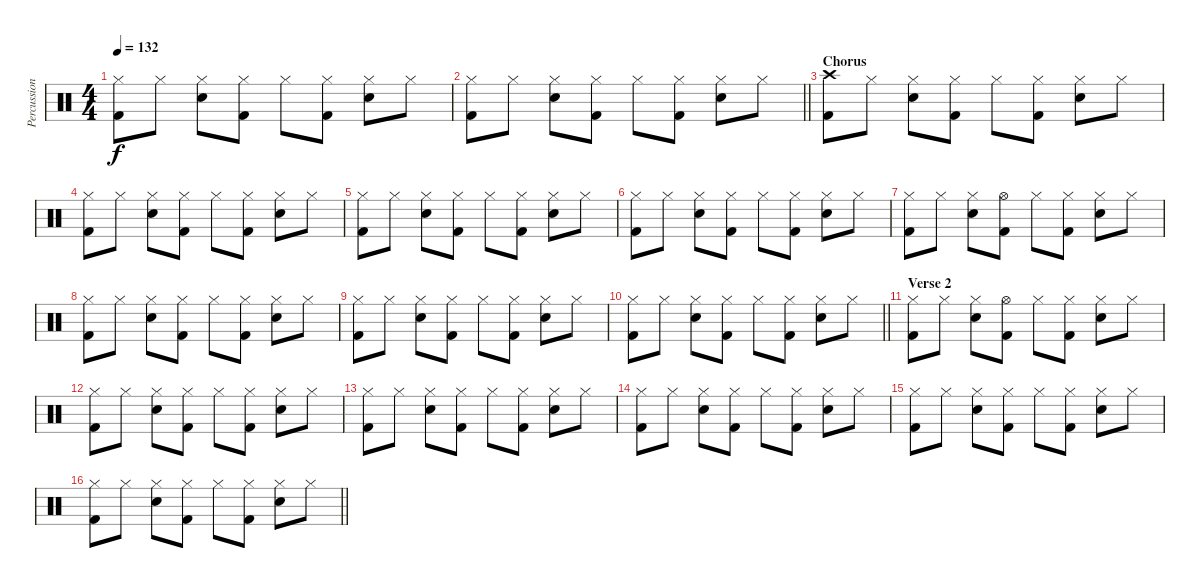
\track ("Percussions" "Percussion") {instrument percussion}
\staff {score}
\articulation defaults
\ts (4 4)
\tempo 132
\clef neutral
\ks c
("Hi-Hat (closed)" "Kick (hit) 2").8{dy f} "Hi-Hat (closed)".8 ("Hi-Hat (closed)" "Electric Snare (hit)").8 ("Hi-Hat (closed)" "Kick (hit) 2").8 "Hi-Hat (closed)".8 ("Hi-Hat (closed)" "Kick (hit) 2").8 ("Hi-Hat (closed)" "Electric Snare (hit)").8 "Hi-Hat (closed)".8 |
\barLineRight lightlight
("Hi-Hat (closed)" "Kick (hit) 2").8 "Hi-Hat (closed)".8 ("Hi-Hat (closed)" "Electric Snare (hit)").8 ("Hi-Hat (closed)" "Kick (hit) 2").8 "Hi-Hat (closed)".8 ("Hi-Hat (closed)" "Kick (hit) 2").8 ("Hi-Hat (closed)" "Electric Snare (hit)").8 "Hi-Hat (closed)".8 |
\section ("" "Chorus")
("Crash high (hit)" "Kick (hit) 2").8 "Hi-Hat (closed)".8 ("Hi-Hat (closed)" "Electric Snare (hit)").8 ("Hi-Hat (closed)" "Kick (hit) 2").8 "Hi-Hat (closed)".8 ("Hi-Hat (closed)" "Kick (hit) 2").8 ("Hi-Hat (closed)" "Electric Snare (hit)").8 "Hi-Hat (closed)".8 |
("Hi-Hat (closed)" "Kick (hit) 2").8 "Hi-Hat (closed)".8 ("Hi-Hat (closed)" "Electric Snare (hit)").8 ("Hi-Hat (closed)" "Kick (hit) 2").8 "Hi-Hat (closed)".8 ("Hi-Hat (closed)" "Kick (hit) 2").8 ("Hi-Hat (closed)" "Electric Snare (hit)").8 "Hi-Hat (closed)".8 |
("Hi-Hat (closed)" "Kick (hit) 2").8 "Hi-Hat (closed)".8 ("Hi-Hat (closed)" "Electric Snare (hit)").8 ("Hi-Hat (closed)" "Kick (hit) 2").8 "Hi-Hat (closed)".8 ("Hi-Hat (closed)" "Kick (hit) 2").8 ("Hi-Hat (closed)" "Electric Snare (hit)").8 "Hi-Hat (closed)".8 |
("Hi-Hat (closed)" "Kick (hit) 2").8 "Hi-Hat (closed)".8 ("Hi-Hat (closed)" "Electric Snare (hit)").8 ("Hi-Hat (closed)" "Kick (hit) 2").8 "Hi-Hat (closed)".8 ("Hi-Hat (closed)" "Kick (hit) 2").8 ("Hi-Hat (closed)" "Electric Snare (hit)").8 "Hi-Hat (closed)".8 |
("Hi-Hat (closed)" "Kick (hit) 2").8 "Hi-Hat (closed)".8 ("Hi-Hat (closed)" "Electric Snare (hit)").8 ("Hi-Hat (open)" "Kick (hit) 2").8 "Hi-Hat (closed)".8 ("Hi-Hat (closed)" "Kick (hit) 2").8 ("Hi-Hat (closed)" "Electric Snare (hit)").8 "Hi-Hat (closed)".8 |
("Hi-Hat (closed)" "Kick (hit) 2").8 "Hi-Hat (closed)".8 ("Hi-Hat (closed)" "Electric Snare (hit)").8 ("Hi-Hat (closed)" "Kick (hit) 2").8 "Hi-Hat (closed)".8 ("Hi-Hat (closed)" "Kick (hit) 2").8 ("Hi-Hat (closed)" "Electric Snare (hit)").8 "Hi-Hat (closed)".8 |
("Hi-Hat (closed)" "Kick (hit) 2").8 "Hi-Hat (closed)".8 ("Hi-Hat (closed)" "Electric Snare (hit)").8 ("Hi-Hat (closed)" "Kick (hit) 2").8 "Hi-Hat (closed)".8 ("Hi-Hat (closed)" "Kick (hit) 2").8 ("Hi-Hat (closed)" "Electric Snare (hit)").8 "Hi-Hat (closed)".8 |
\barLineRight lightlight
("Hi-Hat (closed)" "Kick (hit) 2").8 "Hi-Hat (closed)".8 ("Hi-Hat (closed)" "Electric Snare (hit)").8 ("Hi-Hat (closed)" "Kick (hit) 2").8 "Hi-Hat (closed)".8 ("Hi-Hat (closed)" "Kick (hit) 2").8 ("Hi-Hat (closed)" "Electric Snare (hit)").8 "Hi-Hat (closed)".8 |
\section ("" "Verse 2")
("Hi-Hat (closed)" "Kick (hit) 2").8 "Hi-Hat (closed)".8 ("Hi-Hat (closed)" "Electric Snare (hit)").8 ("Hi-Hat (open)" "Kick (hit) 2").8 "Hi-Hat (closed)".8 ("Hi-Hat (closed)" "Kick (hit) 2").8 ("Hi-Hat (closed)" "Electric Snare (hit)").8 "Hi-Hat (closed)".8 |
("Hi-Hat (closed)" "Kick (hit) 2").8 "Hi-Hat (closed)".8 ("Hi-Hat (closed)" "Electric Snare (hit)").8 ("Hi-Hat (closed)" "Kick (hit) 2").8 "Hi-Hat (closed)".8 ("Hi-Hat (closed)" "Kick (hit) 2").8 ("Hi-Hat (closed)" "Electric Snare (hit)").8 "Hi-Hat (closed)".8 |
("Hi-Hat (closed)" "Kick (hit) 2").8 "Hi-Hat (closed)".8 ("Hi-Hat (closed)" "Electric Snare (hit)").8 ("Hi-Hat (closed)" "Kick (hit) 2").8 "Hi-Hat (closed)".8 ("Hi-Hat (closed)" "Kick (hit) 2").8 ("Hi-Hat (closed)" "Electric Snare (hit)").8 "Hi-Hat (closed)".8 |
("Hi-Hat (closed)" "Kick (hit) 2").8 "Hi-Hat (closed)".8 ("Hi-Hat (closed)" "Electric Snare (hit)").8 ("Hi-Hat (closed)" "Kick (hit) 2").8 "Hi-Hat (closed)".8 ("Hi-Hat (closed)" "Kick (hit) 2").8 ("Hi-Hat (closed)" "Electric Snare (hit)").8 "Hi-Hat (closed)".8 |
("Hi-Hat (closed)" "Kick (hit) 2").8 "Hi-Hat (closed)".8 ("Hi-Hat (closed)" "Electric Snare (hit)").8 ("Hi-Hat (closed)" "Kick (hit) 2").8 "Hi-Hat (closed)".8 ("Hi-Hat (closed)" "Kick (hit) 2").8 ("Hi-Hat (closed)" "Electric Snare (hit)").8 "Hi-Hat (closed)".8 |
\barLineRight lightlight
("Hi-Hat (closed)" "Kick (hit) 2").8 "Hi-Hat (closed)".8 ("Hi-Hat (closed)" "Electric Snare (hit)").8 ("Hi-Hat (closed)" "Kick (hit) 2").8 "Hi-Hat (closed)".8 ("Hi-Hat (closed)" "Kick (hit) 2").8 ("Hi-Hat (closed)" "Electric Snare (hit)").8 "Hi-Hat (closed)".8
